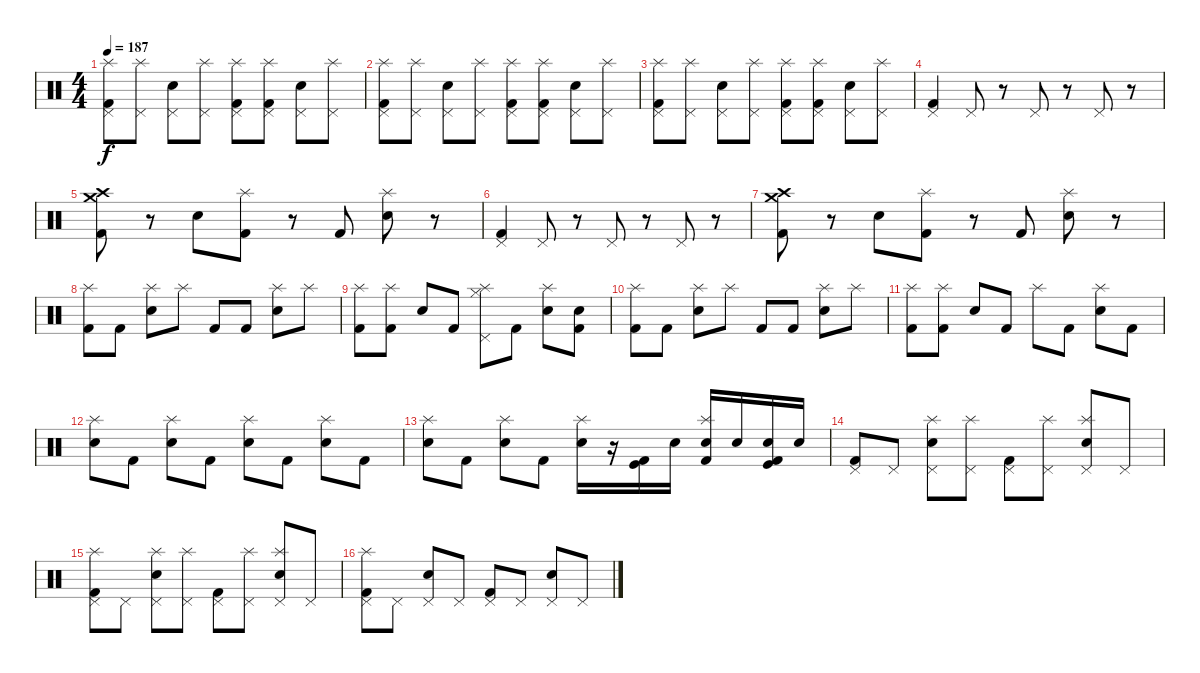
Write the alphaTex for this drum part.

\track "" {instrument percussion}
\staff {score}
\articulation defaults
\ts (4 4)
\tempo 187
\clef neutral
\ks c
("Pedal Hi-Hat (hit)" "Kick (hit) 2" "Splash (hit)").8{dy f} ("Pedal Hi-Hat (hit)" "Splash (hit)").8 ("Pedal Hi-Hat (hit)" "Electric Snare (hit)").8 ("Pedal Hi-Hat (hit)" "Splash (hit)").8 ("Pedal Hi-Hat (hit)" "Kick (hit) 2" "Splash (hit)").8 ("Pedal Hi-Hat (hit)" "Kick (hit) 2" "Splash (hit)").8 ("Pedal Hi-Hat (hit)" "Electric Snare (hit)").8 ("Pedal Hi-Hat (hit)" "Splash (hit)").8 |
("Pedal Hi-Hat (hit)" "Kick (hit) 2" "Splash (hit)").8 ("Pedal Hi-Hat (hit)" "Splash (hit)").8 ("Pedal Hi-Hat (hit)" "Electric Snare (hit)").8 ("Pedal Hi-Hat (hit)" "Splash (hit)").8 ("Pedal Hi-Hat (hit)" "Kick (hit) 2" "Splash (hit)").8 ("Pedal Hi-Hat (hit)" "Kick (hit) 2" "Splash (hit)").8 ("Pedal Hi-Hat (hit)" "Electric Snare (hit)").8 ("Pedal Hi-Hat (hit)" "Splash (hit)").8 |
("Pedal Hi-Hat (hit)" "Kick (hit) 2" "Splash (hit)").8 ("Pedal Hi-Hat (hit)" "Splash (hit)").8 ("Pedal Hi-Hat (hit)" "Electric Snare (hit)").8 ("Pedal Hi-Hat (hit)" "Splash (hit)").8 ("Pedal Hi-Hat (hit)" "Kick (hit) 2" "Splash (hit)").8 ("Pedal Hi-Hat (hit)" "Kick (hit) 2" "Splash (hit)").8 ("Pedal Hi-Hat (hit)" "Electric Snare (hit)").8 ("Pedal Hi-Hat (hit)" "Splash (hit)").8 |
("Pedal Hi-Hat (hit)" "Kick (hit) 2").4 "Pedal Hi-Hat (hit)".8 r.8 "Pedal Hi-Hat (hit)".8 r.8 "Pedal Hi-Hat (hit)".8 r.8 |
("Crash medium (hit)" "Crash high (hit)" "Kick (hit) 2").8 r.8 "Electric Snare (hit)".8 ("Splash (hit)" "Kick (hit) 2").8 r.8 "Kick (hit) 2".8 ("Splash (hit)" "Electric Snare (hit)").8 r.8 |
("Pedal Hi-Hat (hit)" "Kick (hit) 2").4 "Pedal Hi-Hat (hit)".8 r.8 "Pedal Hi-Hat (hit)".8 r.8 "Pedal Hi-Hat (hit)".8 r.8 |
("Crash medium (hit)" "Crash high (hit)" "Kick (hit) 2").8 r.8 "Electric Snare (hit)".8 ("Splash (hit)" "Kick (hit) 2").8 r.8 "Kick (hit) 2".8 ("Splash (hit)" "Electric Snare (hit)").8 r.8 |
("Splash (hit)" "Kick (hit) 2").8 "Kick (hit) 2".8 ("Splash (hit)" "Electric Snare (hit)").8 "Splash (hit)".8 "Kick (hit) 2".8 "Kick (hit) 2".8 ("Splash (hit)" "Electric Snare (hit)").8 "Splash (hit)".8 |
("Splash (hit)" "Kick (hit) 2").8 ("Splash (hit)" "Kick (hit) 2").8 "Electric Snare (hit)".8 "Kick (hit) 2".8 ("Splash (hit)" "Hi-Hat (closed)" "Pedal Hi-Hat (hit)").8 "Kick (hit) 2".8 ("Splash (hit)" "Electric Snare (hit)").8 ("Electric Snare (hit)" "Kick (hit) 2").8 |
("Splash (hit)" "Kick (hit) 2").8 "Kick (hit) 2".8 ("Splash (hit)" "Electric Snare (hit)").8 "Splash (hit)".8 "Kick (hit) 2".8 "Kick (hit) 2".8 ("Splash (hit)" "Electric Snare (hit)").8 "Splash (hit)".8 |
("Splash (hit)" "Kick (hit) 2").8 ("Splash (hit)" "Kick (hit) 2").8 "Electric Snare (hit)".8 "Kick (hit) 2".8 "Splash (hit)".8 "Kick (hit) 2".8 ("Splash (hit)" "Electric Snare (hit)").8 "Kick (hit) 2".8 |
("Splash (hit)" "Electric Snare (hit)").8 "Kick (hit) 2".8 ("Splash (hit)" "Electric Snare (hit)").8 "Kick (hit) 2".8 ("Splash (hit)" "Electric Snare (hit)").8 "Kick (hit) 2".8 ("Splash (hit)" "Electric Snare (hit)").8 "Kick (hit) 2".8 |
("Splash (hit)" "Electric Snare (hit)").8 "Kick (hit) 2".8 ("Splash (hit)" "Electric Snare (hit)").8 "Kick (hit) 2".8 ("Splash (hit)" "Electric Snare (hit)").16 r.16 ("Kick (hit) 2" "Kick (hit)").16 "Electric Snare (hit)".16 ("Splash (hit)" "Electric Snare (hit)" "Kick (hit) 2").16 "Electric Snare (hit)".16 ("Electric Snare (hit)" "Kick (hit) 2" "Kick (hit)").16 "Electric Snare (hit)".16 |
("Pedal Hi-Hat (hit)" "Kick (hit) 2").8 "Pedal Hi-Hat (hit)".8 ("Pedal Hi-Hat (hit)" "Splash (hit)" "Electric Snare (hit)").8 ("Splash (hit)" "Pedal Hi-Hat (hit)").8 ("Pedal Hi-Hat (hit)" "Kick (hit) 2").8 ("Splash (hit)" "Pedal Hi-Hat (hit)").8 ("Pedal Hi-Hat (hit)" "Splash (hit)" "Electric Snare (hit)").8 "Pedal Hi-Hat (hit)".8 |
("Splash (hit)" "Pedal Hi-Hat (hit)" "Kick (hit) 2").8 "Pedal Hi-Hat (hit)".8 ("Pedal Hi-Hat (hit)" "Splash (hit)" "Electric Snare (hit)").8 ("Splash (hit)" "Pedal Hi-Hat (hit)").8 ("Pedal Hi-Hat (hit)" "Kick (hit) 2").8 ("Splash (hit)" "Pedal Hi-Hat (hit)").8 ("Pedal Hi-Hat (hit)" "Splash (hit)" "Electric Snare (hit)").8 "Pedal Hi-Hat (hit)".8 |
("Pedal Hi-Hat (hit)" "Splash (hit)" "Kick (hit) 2").8 "Pedal Hi-Hat (hit)".8 ("Pedal Hi-Hat (hit)" "Electric Snare (hit)").8 "Pedal Hi-Hat (hit)".8 ("Pedal Hi-Hat (hit)" "Kick (hit) 2").8 "Pedal Hi-Hat (hit)".8 ("Pedal Hi-Hat (hit)" "Electric Snare (hit)").8 "Pedal Hi-Hat (hit)".8
